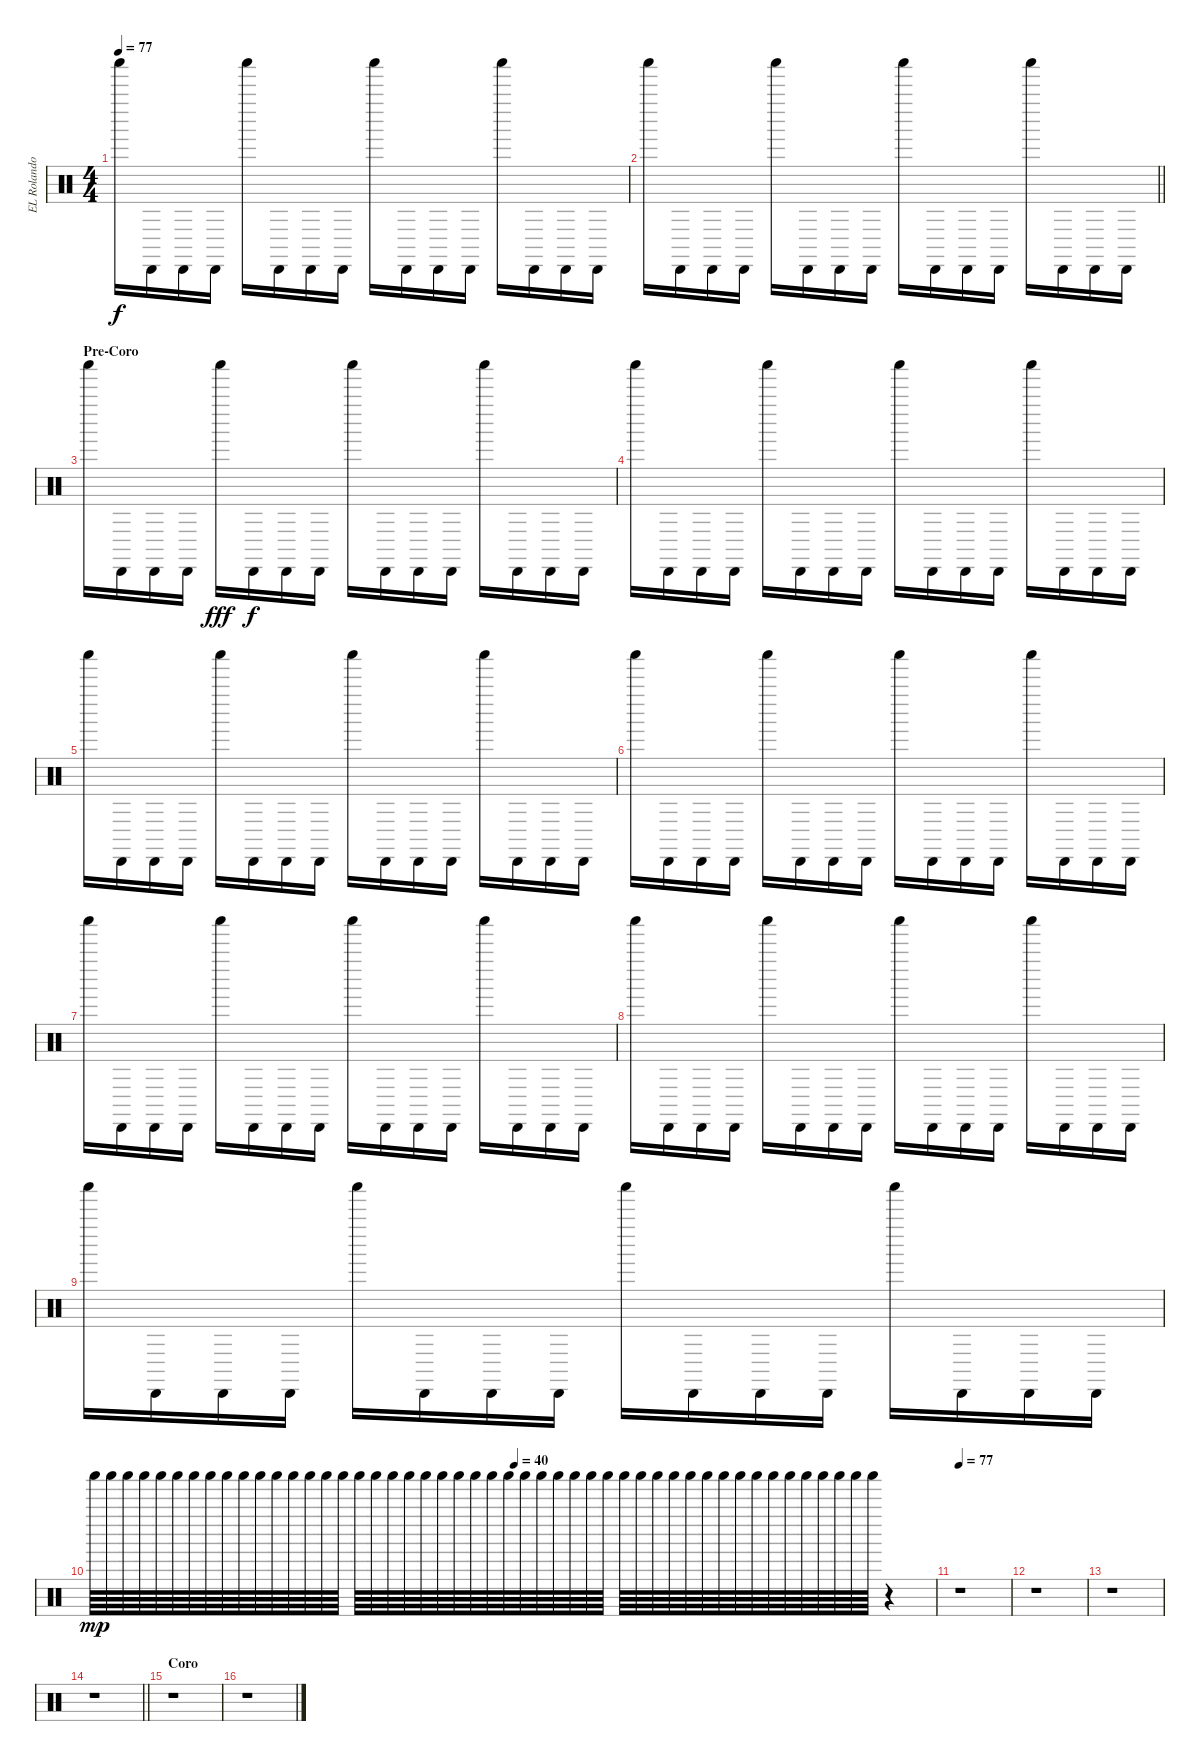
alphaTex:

\track ("EL Rolando" "EL Rolando") {instrument percussion}
\staff {score}
\articulation defaults
\ts (4 4)
\tempo 77
\clef neutral
\ks c "Shaker (hit)".16{dy f} "Cabasa (hit)".16 "Cabasa (hit)".16 "Cabasa (hit)".16 "Shaker (hit)".16 "Cabasa (hit)".16 "Cabasa (hit)".16 "Cabasa (hit)".16 "Shaker (hit)".16 "Cabasa (hit)".16 "Cabasa (hit)".16 "Cabasa (hit)".16 "Shaker (hit)".16 "Cabasa (hit)".16 "Cabasa (hit)".16 "Cabasa (hit)".16
|
\barLineRight lightlight "Shaker (hit)".16 "Cabasa (hit)".16 "Cabasa (hit)".16 "Cabasa (hit)".16 "Shaker (hit)".16 "Cabasa (hit)".16 "Cabasa (hit)".16 "Cabasa (hit)".16 "Shaker (hit)".16 "Cabasa (hit)".16 "Cabasa (hit)".16 "Cabasa (hit)".16 "Shaker (hit)".16 "Cabasa (hit)".16 "Cabasa (hit)".16 "Cabasa (hit)".16
|
\section ("" "Pre-Coro")
"Shaker (hit)".16 "Cabasa (hit)".16 "Cabasa (hit)".16 "Cabasa (hit)".16 "Shaker (hit)".16{dy fff} "Cabasa (hit)".16{dy f} "Cabasa (hit)".16 "Cabasa (hit)".16 "Shaker (hit)".16 "Cabasa (hit)".16 "Cabasa (hit)".16 "Cabasa (hit)".16 "Shaker (hit)".16 "Cabasa (hit)".16 "Cabasa (hit)".16 "Cabasa (hit)".16 |
"Shaker (hit)".16 "Cabasa (hit)".16 "Cabasa (hit)".16 "Cabasa (hit)".16 "Shaker (hit)".16 "Cabasa (hit)".16 "Cabasa (hit)".16 "Cabasa (hit)".16 "Shaker (hit)".16 "Cabasa (hit)".16 "Cabasa (hit)".16 "Cabasa (hit)".16 "Shaker (hit)".16 "Cabasa (hit)".16 "Cabasa (hit)".16 "Cabasa (hit)".16 |
"Shaker (hit)".16 "Cabasa (hit)".16 "Cabasa (hit)".16 "Cabasa (hit)".16 "Shaker (hit)".16 "Cabasa (hit)".16 "Cabasa (hit)".16 "Cabasa (hit)".16 "Shaker (hit)".16 "Cabasa (hit)".16 "Cabasa (hit)".16 "Cabasa (hit)".16 "Shaker (hit)".16 "Cabasa (hit)".16 "Cabasa (hit)".16 "Cabasa (hit)".16 |
"Shaker (hit)".16 "Cabasa (hit)".16 "Cabasa (hit)".16 "Cabasa (hit)".16 "Shaker (hit)".16 "Cabasa (hit)".16 "Cabasa (hit)".16 "Cabasa (hit)".16 "Shaker (hit)".16 "Cabasa (hit)".16 "Cabasa (hit)".16 "Cabasa (hit)".16 "Shaker (hit)".16 "Cabasa (hit)".16 "Cabasa (hit)".16 "Cabasa (hit)".16 |
"Shaker (hit)".16 "Cabasa (hit)".16 "Cabasa (hit)".16 "Cabasa (hit)".16 "Shaker (hit)".16 "Cabasa (hit)".16 "Cabasa (hit)".16 "Cabasa (hit)".16 "Shaker (hit)".16 "Cabasa (hit)".16 "Cabasa (hit)".16 "Cabasa (hit)".16 "Shaker (hit)".16 "Cabasa (hit)".16 "Cabasa (hit)".16 "Cabasa (hit)".16 |
"Shaker (hit)".16 "Cabasa (hit)".16 "Cabasa (hit)".16 "Cabasa (hit)".16 "Shaker (hit)".16 "Cabasa (hit)".16 "Cabasa (hit)".16 "Cabasa (hit)".16 "Shaker (hit)".16 "Cabasa (hit)".16 "Cabasa (hit)".16 "Cabasa (hit)".16 "Shaker (hit)".16 "Cabasa (hit)".16 "Cabasa (hit)".16 "Cabasa (hit)".16 |
"Shaker (hit)".16 "Cabasa (hit)".16 "Cabasa (hit)".16 "Cabasa (hit)".16 "Shaker (hit)".16 "Cabasa (hit)".16 "Cabasa (hit)".16 "Cabasa (hit)".16 "Shaker (hit)".16 "Cabasa (hit)".16 "Cabasa (hit)".16 "Cabasa (hit)".16 "Shaker (hit)".16 "Cabasa (hit)".16 "Cabasa (hit)".16 "Cabasa (hit)".16 |
\tempo (40 0.5)
"Shaker (hit)".64{dy mp volume 0} "Shaker (hit)".64 "Shaker (hit)".64 "Shaker (hit)".64 "Shaker (hit)".64 "Shaker (hit)".64 "Shaker (hit)".64 "Shaker (hit)".64 "Shaker (hit)".64 "Shaker (hit)".64 "Shaker (hit)".64 "Shaker (hit)".64 "Shaker (hit)".64 "Shaker (hit)".64 "Shaker (hit)".64 "Shaker (hit)".64 "Shaker (hit)".64 "Shaker (hit)".64 "Shaker (hit)".64 "Shaker (hit)".64 "Shaker (hit)".64 "Shaker (hit)".64 "Shaker (hit)".64 "Shaker (hit)".64 "Shaker (hit)".64 "Shaker (hit)".64 "Shaker (hit)".64 "Shaker (hit)".64 "Shaker (hit)".64 "Shaker (hit)".64 "Shaker (hit)".64 "Shaker (hit)".64 "Shaker (hit)".64 "Shaker (hit)".64 "Shaker (hit)".64 "Shaker (hit)".64 "Shaker (hit)".64 "Shaker (hit)".64 "Shaker (hit)".64 "Shaker (hit)".64 "Shaker (hit)".64 "Shaker (hit)".64 "Shaker (hit)".64 "Shaker (hit)".64 "Shaker (hit)".64 "Shaker (hit)".64 "Shaker (hit)".64 "Shaker (hit)".64 r.4 |
\tempo 77
r.1 |
r.1 |
r.1 |
\barLineRight lightlight
r.1 |
\section ("" "Coro")
r.1 |
r.1
